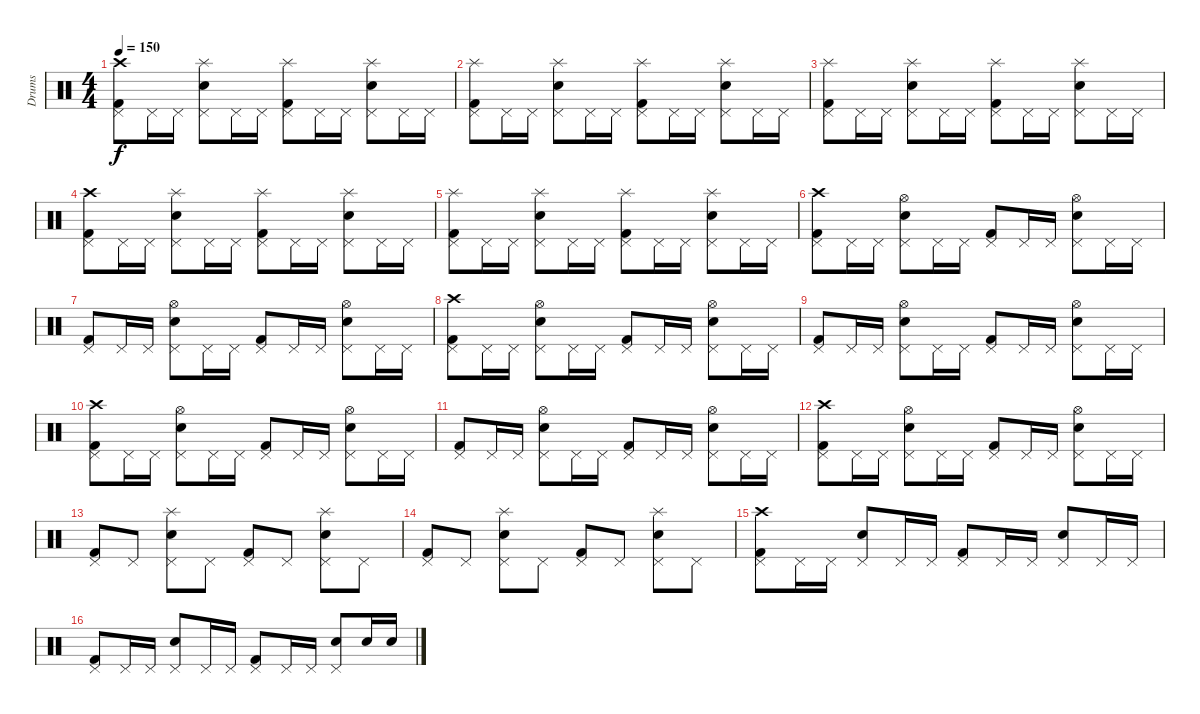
\track ("Drums" "Drums") {instrument percussion}
\staff {score}
\articulation defaults
\ts (4 4)
\tempo 150
\clef neutral
\ks c
("Kick (hit) 2" "Pedal Hi-Hat (hit)" "Crash high (hit)").8{dy f} "Pedal Hi-Hat (hit)".16 "Pedal Hi-Hat (hit)".16 ("Snare (hit) 2" "Pedal Hi-Hat (hit)" "Splash (hit)").8 "Pedal Hi-Hat (hit)".16 "Pedal Hi-Hat (hit)".16 ("Kick (hit) 2" "Pedal Hi-Hat (hit)" "Splash (hit)").8 "Pedal Hi-Hat (hit)".16 "Pedal Hi-Hat (hit)".16 ("Snare (hit) 2" "Pedal Hi-Hat (hit)" "Splash (hit)").8 "Pedal Hi-Hat (hit)".16 "Pedal Hi-Hat (hit)".16 |
("Kick (hit) 2" "Pedal Hi-Hat (hit)" "Splash (hit)").8 "Pedal Hi-Hat (hit)".16 "Pedal Hi-Hat (hit)".16 ("Snare (hit) 2" "Pedal Hi-Hat (hit)" "Splash (hit)").8 "Pedal Hi-Hat (hit)".16 "Pedal Hi-Hat (hit)".16 ("Kick (hit) 2" "Pedal Hi-Hat (hit)" "Splash (hit)").8 "Pedal Hi-Hat (hit)".16 "Pedal Hi-Hat (hit)".16 ("Snare (hit) 2" "Pedal Hi-Hat (hit)" "Splash (hit)").8 "Pedal Hi-Hat (hit)".16 "Pedal Hi-Hat (hit)".16 |
("Kick (hit) 2" "Pedal Hi-Hat (hit)" "Splash (hit)").8 "Pedal Hi-Hat (hit)".16 "Pedal Hi-Hat (hit)".16 ("Snare (hit) 2" "Pedal Hi-Hat (hit)" "Splash (hit)").8 "Pedal Hi-Hat (hit)".16 "Pedal Hi-Hat (hit)".16 ("Kick (hit) 2" "Pedal Hi-Hat (hit)" "Splash (hit)").8 "Pedal Hi-Hat (hit)".16 "Pedal Hi-Hat (hit)".16 ("Snare (hit) 2" "Pedal Hi-Hat (hit)" "Splash (hit)").8 "Pedal Hi-Hat (hit)".16 "Pedal Hi-Hat (hit)".16 |
("Kick (hit) 2" "Pedal Hi-Hat (hit)" "Crash high (hit)").8 "Pedal Hi-Hat (hit)".16 "Pedal Hi-Hat (hit)".16 ("Snare (hit) 2" "Pedal Hi-Hat (hit)" "Splash (hit)").8 "Pedal Hi-Hat (hit)".16 "Pedal Hi-Hat (hit)".16 ("Kick (hit) 2" "Pedal Hi-Hat (hit)" "Splash (hit)").8 "Pedal Hi-Hat (hit)".16 "Pedal Hi-Hat (hit)".16 ("Snare (hit) 2" "Pedal Hi-Hat (hit)" "Splash (hit)").8 "Pedal Hi-Hat (hit)".16 "Pedal Hi-Hat (hit)".16 |
("Kick (hit) 2" "Pedal Hi-Hat (hit)" "Splash (hit)").8 "Pedal Hi-Hat (hit)".16 "Pedal Hi-Hat (hit)".16 ("Snare (hit) 2" "Pedal Hi-Hat (hit)" "Splash (hit)").8 "Pedal Hi-Hat (hit)".16 "Pedal Hi-Hat (hit)".16 ("Kick (hit) 2" "Pedal Hi-Hat (hit)" "Splash (hit)").8 "Pedal Hi-Hat (hit)".16 "Pedal Hi-Hat (hit)".16 ("Snare (hit) 2" "Pedal Hi-Hat (hit)" "Splash (hit)").8 "Pedal Hi-Hat (hit)".16 "Pedal Hi-Hat (hit)".16 |
("Kick (hit) 2" "Pedal Hi-Hat (hit)" "Crash high (hit)").8 "Pedal Hi-Hat (hit)".16 "Pedal Hi-Hat (hit)".16 ("Snare (hit) 2" "Pedal Hi-Hat (hit)" "Hi-Hat (open)").8 "Pedal Hi-Hat (hit)".16 "Pedal Hi-Hat (hit)".16 ("Kick (hit) 2" "Pedal Hi-Hat (hit)").8 "Pedal Hi-Hat (hit)".16 "Pedal Hi-Hat (hit)".16 ("Snare (hit) 2" "Pedal Hi-Hat (hit)" "Hi-Hat (open)").8 "Pedal Hi-Hat (hit)".16 "Pedal Hi-Hat (hit)".16 |
("Kick (hit) 2" "Pedal Hi-Hat (hit)").8 "Pedal Hi-Hat (hit)".16 "Pedal Hi-Hat (hit)".16 ("Snare (hit) 2" "Pedal Hi-Hat (hit)" "Hi-Hat (open)").8 "Pedal Hi-Hat (hit)".16 "Pedal Hi-Hat (hit)".16 ("Kick (hit) 2" "Pedal Hi-Hat (hit)").8 "Pedal Hi-Hat (hit)".16 "Pedal Hi-Hat (hit)".16 ("Snare (hit) 2" "Pedal Hi-Hat (hit)" "Hi-Hat (open)").8 "Pedal Hi-Hat (hit)".16 "Pedal Hi-Hat (hit)".16 |
("Kick (hit) 2" "Pedal Hi-Hat (hit)" "Crash high (hit)").8 "Pedal Hi-Hat (hit)".16 "Pedal Hi-Hat (hit)".16 ("Snare (hit) 2" "Pedal Hi-Hat (hit)" "Hi-Hat (open)").8 "Pedal Hi-Hat (hit)".16 "Pedal Hi-Hat (hit)".16 ("Kick (hit) 2" "Pedal Hi-Hat (hit)").8 "Pedal Hi-Hat (hit)".16 "Pedal Hi-Hat (hit)".16 ("Snare (hit) 2" "Pedal Hi-Hat (hit)" "Hi-Hat (open)").8 "Pedal Hi-Hat (hit)".16 "Pedal Hi-Hat (hit)".16 |
("Kick (hit) 2" "Pedal Hi-Hat (hit)").8 "Pedal Hi-Hat (hit)".16 "Pedal Hi-Hat (hit)".16 ("Snare (hit) 2" "Pedal Hi-Hat (hit)" "Hi-Hat (open)").8 "Pedal Hi-Hat (hit)".16 "Pedal Hi-Hat (hit)".16 ("Kick (hit) 2" "Pedal Hi-Hat (hit)").8 "Pedal Hi-Hat (hit)".16 "Pedal Hi-Hat (hit)".16 ("Snare (hit) 2" "Pedal Hi-Hat (hit)" "Hi-Hat (open)").8 "Pedal Hi-Hat (hit)".16 "Pedal Hi-Hat (hit)".16 |
("Kick (hit) 2" "Pedal Hi-Hat (hit)" "Crash high (hit)").8 "Pedal Hi-Hat (hit)".16 "Pedal Hi-Hat (hit)".16 ("Snare (hit) 2" "Pedal Hi-Hat (hit)" "Hi-Hat (open)").8 "Pedal Hi-Hat (hit)".16 "Pedal Hi-Hat (hit)".16 ("Kick (hit) 2" "Pedal Hi-Hat (hit)").8 "Pedal Hi-Hat (hit)".16 "Pedal Hi-Hat (hit)".16 ("Snare (hit) 2" "Pedal Hi-Hat (hit)" "Hi-Hat (open)").8 "Pedal Hi-Hat (hit)".16 "Pedal Hi-Hat (hit)".16 |
("Kick (hit) 2" "Pedal Hi-Hat (hit)").8 "Pedal Hi-Hat (hit)".16 "Pedal Hi-Hat (hit)".16 ("Snare (hit) 2" "Pedal Hi-Hat (hit)" "Hi-Hat (open)").8 "Pedal Hi-Hat (hit)".16 "Pedal Hi-Hat (hit)".16 ("Kick (hit) 2" "Pedal Hi-Hat (hit)").8 "Pedal Hi-Hat (hit)".16 "Pedal Hi-Hat (hit)".16 ("Snare (hit) 2" "Pedal Hi-Hat (hit)" "Hi-Hat (open)").8 "Pedal Hi-Hat (hit)".16 "Pedal Hi-Hat (hit)".16 |
("Kick (hit) 2" "Pedal Hi-Hat (hit)" "Crash high (hit)").8 "Pedal Hi-Hat (hit)".16 "Pedal Hi-Hat (hit)".16 ("Snare (hit) 2" "Pedal Hi-Hat (hit)" "Hi-Hat (open)").8 "Pedal Hi-Hat (hit)".16 "Pedal Hi-Hat (hit)".16 ("Kick (hit) 2" "Pedal Hi-Hat (hit)").8 "Pedal Hi-Hat (hit)".16 "Pedal Hi-Hat (hit)".16 ("Snare (hit) 2" "Pedal Hi-Hat (hit)" "Hi-Hat (open)").8 "Pedal Hi-Hat (hit)".16 "Pedal Hi-Hat (hit)".16 |
("Kick (hit) 2" "Pedal Hi-Hat (hit)").8 "Pedal Hi-Hat (hit)".8 ("Snare (hit) 2" "Pedal Hi-Hat (hit)" "Splash (hit)").8 "Pedal Hi-Hat (hit)".8 ("Kick (hit) 2" "Pedal Hi-Hat (hit)").8 "Pedal Hi-Hat (hit)".8 ("Snare (hit) 2" "Pedal Hi-Hat (hit)" "Splash (hit)").8 "Pedal Hi-Hat (hit)".8 |
("Kick (hit) 2" "Pedal Hi-Hat (hit)").8 "Pedal Hi-Hat (hit)".8 ("Snare (hit) 2" "Pedal Hi-Hat (hit)" "Splash (hit)").8 "Pedal Hi-Hat (hit)".8 ("Kick (hit) 2" "Pedal Hi-Hat (hit)").8 "Pedal Hi-Hat (hit)".8 ("Snare (hit) 2" "Pedal Hi-Hat (hit)" "Splash (hit)").8 "Pedal Hi-Hat (hit)".8 |
("Kick (hit) 2" "Pedal Hi-Hat (hit)" "Crash high (hit)").8 "Pedal Hi-Hat (hit)".16 "Pedal Hi-Hat (hit)".16 ("Snare (hit) 2" "Pedal Hi-Hat (hit)").8 "Pedal Hi-Hat (hit)".16 "Pedal Hi-Hat (hit)".16 ("Kick (hit) 2" "Pedal Hi-Hat (hit)").8 "Pedal Hi-Hat (hit)".16 "Pedal Hi-Hat (hit)".16 ("Snare (hit) 2" "Pedal Hi-Hat (hit)").8 "Pedal Hi-Hat (hit)".16 "Pedal Hi-Hat (hit)".16 |
("Kick (hit) 2" "Pedal Hi-Hat (hit)").8 "Pedal Hi-Hat (hit)".16 "Pedal Hi-Hat (hit)".16 ("Snare (hit) 2" "Pedal Hi-Hat (hit)").8 "Pedal Hi-Hat (hit)".16 "Pedal Hi-Hat (hit)".16 ("Kick (hit) 2" "Pedal Hi-Hat (hit)").8 "Pedal Hi-Hat (hit)".16 "Pedal Hi-Hat (hit)".16 ("Snare (hit) 2" "Pedal Hi-Hat (hit)").8 "Snare (hit) 2".16 "Snare (hit) 2".16
